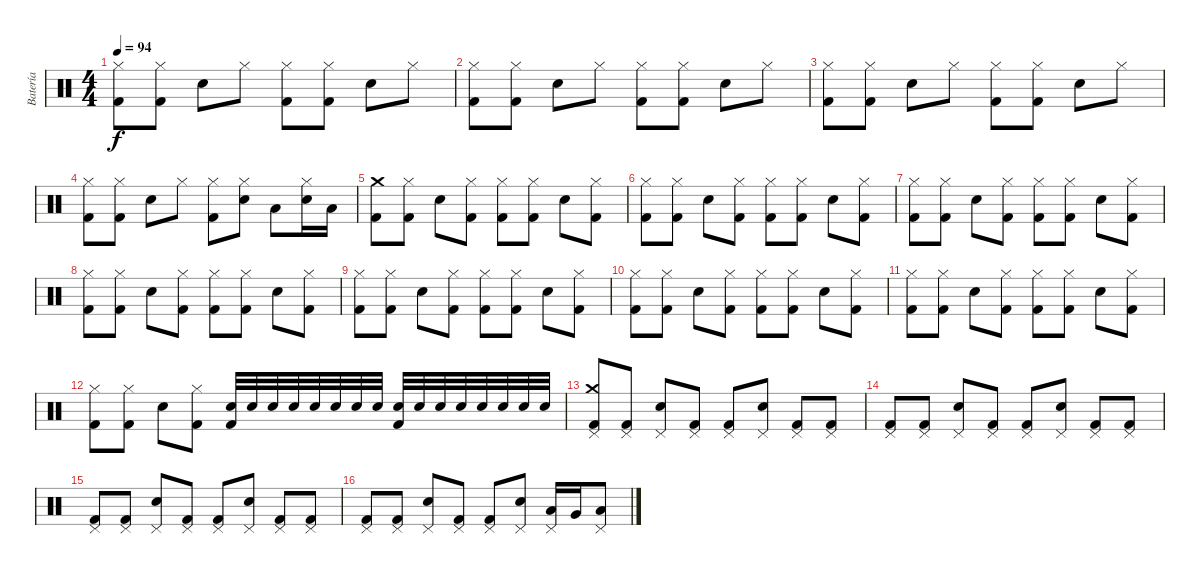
\track ("Batería" "Batería") {instrument percussion}
\staff {score}
\articulation defaults
\ts (4 4)
\tempo 94
\clef neutral
\ks c
("Hi-Hat (closed)" "Kick (hit) 2").8{dy f} ("Hi-Hat (closed)" "Kick (hit) 2").8 "Snare (hit) 2".8 "Hi-Hat (closed)".8 ("Hi-Hat (closed)" "Kick (hit) 2").8 ("Hi-Hat (closed)" "Kick (hit) 2").8 "Snare (hit) 2".8 "Hi-Hat (closed)".8 |
("Hi-Hat (closed)" "Kick (hit) 2").8 ("Hi-Hat (closed)" "Kick (hit) 2").8 "Snare (hit) 2".8 "Hi-Hat (closed)".8 ("Hi-Hat (closed)" "Kick (hit) 2").8 ("Hi-Hat (closed)" "Kick (hit) 2").8 "Snare (hit) 2".8 "Hi-Hat (closed)".8 |
("Hi-Hat (closed)" "Kick (hit) 2").8 ("Hi-Hat (closed)" "Kick (hit) 2").8 "Snare (hit) 2".8 "Hi-Hat (closed)".8 ("Hi-Hat (closed)" "Kick (hit) 2").8 ("Hi-Hat (closed)" "Kick (hit) 2").8 "Snare (hit) 2".8 "Hi-Hat (closed)".8 |
("Hi-Hat (closed)" "Kick (hit) 2").8 ("Hi-Hat (closed)" "Kick (hit) 2").8 "Snare (hit) 2".8 "Hi-Hat (closed)".8 ("Hi-Hat (closed)" "Kick (hit) 2").8 ("Hi-Hat (closed)" "Snare (hit) 2").8 "Low Tom (hit)".8 ("Snare (hit) 2" "Hi-Hat (closed)").16 "Low Tom (hit)".16 |
("Crash medium (hit)" "Kick (hit) 2").8 ("Hi-Hat (closed)" "Kick (hit) 2").8 "Snare (hit) 2".8 ("Kick (hit) 2" "Hi-Hat (closed)").8 ("Hi-Hat (closed)" "Kick (hit) 2").8 ("Hi-Hat (closed)" "Kick (hit) 2").8 "Snare (hit) 2".8 ("Kick (hit) 2" "Hi-Hat (closed)").8 |
("Hi-Hat (closed)" "Kick (hit) 2").8 ("Hi-Hat (closed)" "Kick (hit) 2").8 "Snare (hit) 2".8 ("Kick (hit) 2" "Hi-Hat (closed)").8 ("Hi-Hat (closed)" "Kick (hit) 2").8 ("Hi-Hat (closed)" "Kick (hit) 2").8 "Snare (hit) 2".8 ("Kick (hit) 2" "Hi-Hat (closed)").8 |
("Hi-Hat (closed)" "Kick (hit) 2").8 ("Hi-Hat (closed)" "Kick (hit) 2").8 "Snare (hit) 2".8 ("Kick (hit) 2" "Hi-Hat (closed)").8 ("Hi-Hat (closed)" "Kick (hit) 2").8 ("Hi-Hat (closed)" "Kick (hit) 2").8 "Snare (hit) 2".8 ("Kick (hit) 2" "Hi-Hat (closed)").8 |
("Hi-Hat (closed)" "Kick (hit) 2").8 ("Hi-Hat (closed)" "Kick (hit) 2").8 "Snare (hit) 2".8 ("Kick (hit) 2" "Hi-Hat (closed)").8 ("Hi-Hat (closed)" "Kick (hit) 2").8 ("Hi-Hat (closed)" "Kick (hit) 2").8 "Snare (hit) 2".8 ("Kick (hit) 2" "Hi-Hat (closed)").8 |
("Hi-Hat (closed)" "Kick (hit) 2").8 ("Hi-Hat (closed)" "Kick (hit) 2").8 "Snare (hit) 2".8 ("Kick (hit) 2" "Hi-Hat (closed)").8 ("Hi-Hat (closed)" "Kick (hit) 2").8 ("Hi-Hat (closed)" "Kick (hit) 2").8 "Snare (hit) 2".8 ("Kick (hit) 2" "Hi-Hat (closed)").8 |
("Hi-Hat (closed)" "Kick (hit) 2").8 ("Hi-Hat (closed)" "Kick (hit) 2").8 "Snare (hit) 2".8 ("Kick (hit) 2" "Hi-Hat (closed)").8 ("Hi-Hat (closed)" "Kick (hit) 2").8 ("Hi-Hat (closed)" "Kick (hit) 2").8 "Snare (hit) 2".8 ("Kick (hit) 2" "Hi-Hat (closed)").8 |
("Hi-Hat (closed)" "Kick (hit) 2").8 ("Hi-Hat (closed)" "Kick (hit) 2").8 "Snare (hit) 2".8 ("Kick (hit) 2" "Hi-Hat (closed)").8 ("Hi-Hat (closed)" "Kick (hit) 2").8 ("Hi-Hat (closed)" "Kick (hit) 2").8 "Snare (hit) 2".8 ("Kick (hit) 2" "Hi-Hat (closed)").8 |
("Hi-Hat (closed)" "Kick (hit) 2").8 ("Hi-Hat (closed)" "Kick (hit) 2").8 "Snare (hit) 2".8 ("Hi-Hat (closed)" "Kick (hit) 2").8 ("Snare (hit) 2" "Kick (hit) 2").32 "Snare (hit) 2".32 "Snare (hit) 2".32 "Snare (hit) 2".32 "Snare (hit) 2".32 "Snare (hit) 2".32 "Snare (hit) 2".32 "Snare (hit) 2".32 ("Snare (hit) 2" "Kick (hit) 2").32 "Snare (hit) 2".32 "Snare (hit) 2".32 "Snare (hit) 2".32 "Snare (hit) 2".32 "Snare (hit) 2".32 "Snare (hit) 2".32 "Snare (hit) 2".32 |
("Crash medium (hit)" "Pedal Hi-Hat (hit)" "Kick (hit) 2").8 ("Pedal Hi-Hat (hit)" "Kick (hit) 2").8 ("Pedal Hi-Hat (hit)" "Snare (hit) 2").8 ("Pedal Hi-Hat (hit)" "Kick (hit) 2").8 ("Pedal Hi-Hat (hit)" "Kick (hit) 2").8 ("Pedal Hi-Hat (hit)" "Snare (hit) 2").8 ("Pedal Hi-Hat (hit)" "Kick (hit) 2").8 ("Pedal Hi-Hat (hit)" "Kick (hit) 2").8 |
("Pedal Hi-Hat (hit)" "Kick (hit) 2").8 ("Pedal Hi-Hat (hit)" "Kick (hit) 2").8 ("Pedal Hi-Hat (hit)" "Snare (hit) 2").8 ("Kick (hit) 2" "Pedal Hi-Hat (hit)").8 ("Kick (hit) 2" "Pedal Hi-Hat (hit)").8 ("Snare (hit) 2" "Pedal Hi-Hat (hit)").8 ("Kick (hit) 2" "Pedal Hi-Hat (hit)").8 ("Kick (hit) 2" "Pedal Hi-Hat (hit)").8 |
("Kick (hit) 2" "Pedal Hi-Hat (hit)").8 ("Kick (hit) 2" "Pedal Hi-Hat (hit)").8 ("Snare (hit) 2" "Pedal Hi-Hat (hit)").8 ("Kick (hit) 2" "Pedal Hi-Hat (hit)").8 ("Kick (hit) 2" "Pedal Hi-Hat (hit)").8 ("Snare (hit) 2" "Pedal Hi-Hat (hit)").8 ("Kick (hit) 2" "Pedal Hi-Hat (hit)").8 ("Kick (hit) 2" "Pedal Hi-Hat (hit)").8 |
("Kick (hit) 2" "Pedal Hi-Hat (hit)").8 ("Kick (hit) 2" "Pedal Hi-Hat (hit)").8 ("Snare (hit) 2" "Pedal Hi-Hat (hit)").8 ("Kick (hit) 2" "Pedal Hi-Hat (hit)").8 ("Kick (hit) 2" "Pedal Hi-Hat (hit)").8 ("Snare (hit) 2" "Pedal Hi-Hat (hit)").8 ("Low Tom (hit)" "Pedal Hi-Hat (hit)").16 "Very Low Tom (hit)".16 ("Low Floor Tom (hit)" "Pedal Hi-Hat (hit)").8
